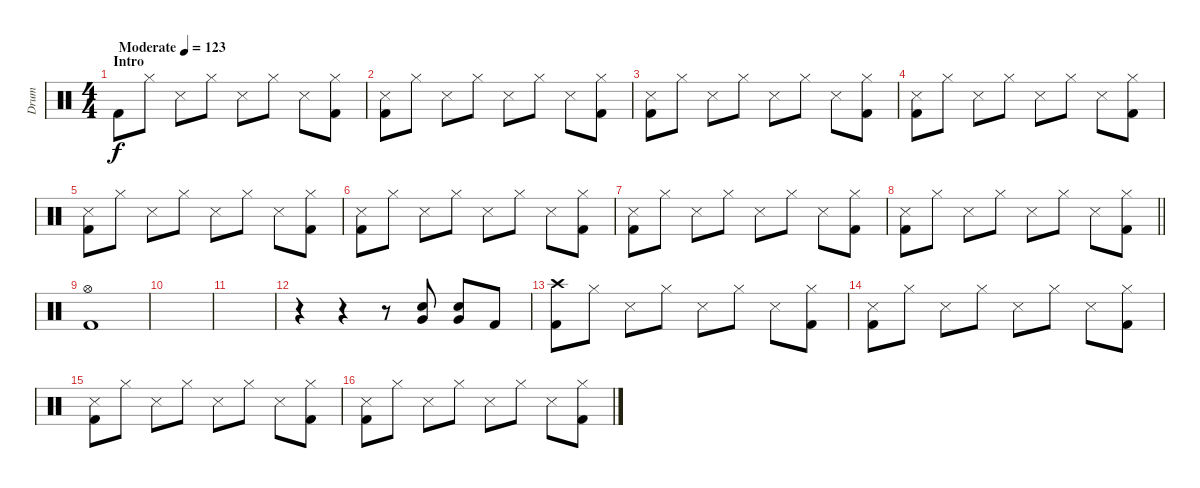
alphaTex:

\track ("Drum" "Drum") {instrument percussion}
\staff {score}
\articulation defaults
\ts (4 4)
\section ("" "Intro")
\tempo (123 "Moderate")
\clef neutral
\ks c "Kick (hit) 2".8{dy f} "Hi-Hat (closed)".8 "Snare (side stick) 3".8 "Hi-Hat (closed)".8 "Snare (side stick) 3".8 "Hi-Hat (closed)".8 "Snare (side stick) 3".8
("Hi-Hat (closed)" "Kick (hit) 2").8 |
("Snare (side stick) 3" "Kick (hit) 2").8 "Hi-Hat (closed)".8 "Snare (side stick) 3".8 "Hi-Hat (closed)".8 "Snare (side stick) 3".8 "Hi-Hat (closed)".8 "Snare (side stick) 3".8 ("Hi-Hat (closed)" "Kick (hit) 2").8 |
("Snare (side stick) 3" "Kick (hit) 2").8 "Hi-Hat (closed)".8 "Snare (side stick) 3".8 "Hi-Hat (closed)".8 "Snare (side stick) 3".8 "Hi-Hat (closed)".8 "Snare (side stick) 3".8 ("Hi-Hat (closed)" "Kick (hit) 2").8 |
("Snare (side stick) 3" "Kick (hit) 2").8 "Hi-Hat (closed)".8 "Snare (side stick) 3".8 "Hi-Hat (closed)".8 "Snare (side stick) 3".8 "Hi-Hat (closed)".8 "Snare (side stick) 3".8 ("Hi-Hat (closed)" "Kick (hit) 2").8 |
("Snare (side stick) 3" "Kick (hit) 2").8 "Hi-Hat (closed)".8 "Snare (side stick) 3".8 "Hi-Hat (closed)".8 "Snare (side stick) 3".8 "Hi-Hat (closed)".8 "Snare (side stick) 3".8 ("Hi-Hat (closed)" "Kick (hit) 2").8 |
("Snare (side stick) 3" "Kick (hit) 2").8 "Hi-Hat (closed)".8 "Snare (side stick) 3".8 "Hi-Hat (closed)".8 "Snare (side stick) 3".8 "Hi-Hat (closed)".8 "Snare (side stick) 3".8 ("Hi-Hat (closed)" "Kick (hit) 2").8 |
("Snare (side stick) 3" "Kick (hit) 2").8 "Hi-Hat (closed)".8 "Snare (side stick) 3".8 "Hi-Hat (closed)".8 "Snare (side stick) 3".8 "Hi-Hat (closed)".8 "Snare (side stick) 3".8 ("Hi-Hat (closed)" "Kick (hit) 2").8 |
\barLineRight lightlight
("Snare (side stick) 3" "Kick (hit) 2").8 "Hi-Hat (closed)".8 "Snare (side stick) 3".8 "Hi-Hat (closed)".8 "Snare (side stick) 3".8 "Hi-Hat (closed)".8 "Snare (side stick) 3".8 ("Hi-Hat (closed)" "Kick (hit) 2").8 |
("Hi-Hat (open)" "Kick (hit) 2").1 |
|
|
r.4 r.4 r.8 ("Electric Snare (hit)" "Very Low Tom (hit)").8 ("Electric Snare (hit)" "Very Low Tom (hit)").8 "Kick (hit) 2".8 |
("Crash high (hit)" "Kick (hit) 2").8 "Hi-Hat (closed)".8 "Snare (side stick) 3".8 "Hi-Hat (closed)".8 "Snare (side stick) 3".8 "Hi-Hat (closed)".8 "Snare (side stick) 3".8 ("Hi-Hat (closed)" "Kick (hit) 2").8 |
("Snare (side stick) 3" "Kick (hit) 2").8 "Hi-Hat (closed)".8 "Snare (side stick) 3".8 "Hi-Hat (closed)".8 "Snare (side stick) 3".8 "Hi-Hat (closed)".8 "Snare (side stick) 3".8 ("Hi-Hat (closed)" "Kick (hit) 2").8 |
("Snare (side stick) 3" "Kick (hit) 2").8 "Hi-Hat (closed)".8 "Snare (side stick) 3".8 "Hi-Hat (closed)".8 "Snare (side stick) 3".8 "Hi-Hat (closed)".8 "Snare (side stick) 3".8 ("Hi-Hat (closed)" "Kick (hit) 2").8 |
("Snare (side stick) 3" "Kick (hit) 2").8 "Hi-Hat (closed)".8 "Snare (side stick) 3".8 "Hi-Hat (closed)".8 "Snare (side stick) 3".8 "Hi-Hat (closed)".8 "Snare (side stick) 3".8 ("Hi-Hat (closed)" "Kick (hit) 2").8
